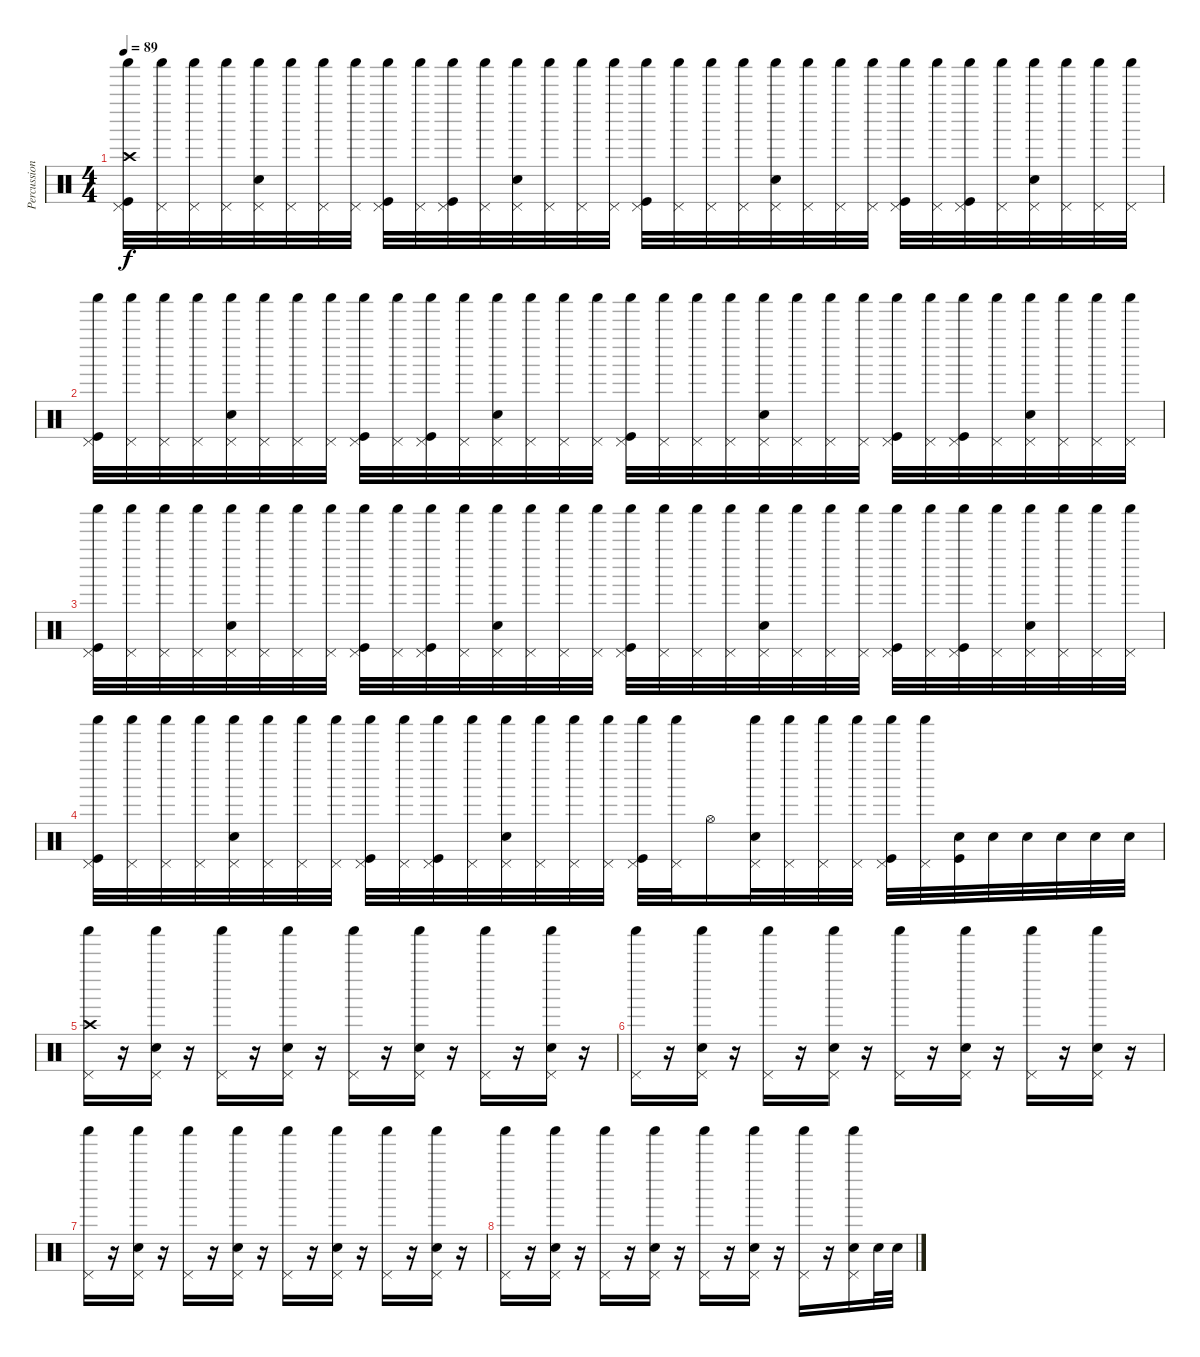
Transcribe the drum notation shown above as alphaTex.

\track ("Percussion" "Percussion") {instrument percussion}
\staff {score}
\articulation defaults
\ts (4 4)
\tempo 89
\clef neutral
\ks c
("Pedal Hi-Hat (hit)" "Shaker (hit)" "Crash high (hit)" "Kick (hit)").32{dy f} ("Pedal Hi-Hat (hit)" "Shaker (hit)").32 ("Pedal Hi-Hat (hit)" "Shaker (hit)").32 ("Pedal Hi-Hat (hit)" "Shaker (hit)").32 ("Pedal Hi-Hat (hit)" "Shaker (hit)" "Snare (hit) 2").32 ("Pedal Hi-Hat (hit)" "Shaker (hit)").32 ("Pedal Hi-Hat (hit)" "Shaker (hit)").32 ("Pedal Hi-Hat (hit)" "Shaker (hit)").32 ("Pedal Hi-Hat (hit)" "Shaker (hit)" "Kick (hit)").32 ("Pedal Hi-Hat (hit)" "Shaker (hit)").32 ("Pedal Hi-Hat (hit)" "Shaker (hit)" "Kick (hit)").32 ("Pedal Hi-Hat (hit)" "Shaker (hit)").32 ("Pedal Hi-Hat (hit)" "Shaker (hit)" "Snare (hit) 2").32 ("Pedal Hi-Hat (hit)" "Shaker (hit)").32 ("Pedal Hi-Hat (hit)" "Shaker (hit)").32 ("Pedal Hi-Hat (hit)" "Shaker (hit)").32 ("Pedal Hi-Hat (hit)" "Shaker (hit)" "Kick (hit)").32 ("Pedal Hi-Hat (hit)" "Shaker (hit)").32 ("Pedal Hi-Hat (hit)" "Shaker (hit)").32 ("Pedal Hi-Hat (hit)" "Shaker (hit)").32 ("Pedal Hi-Hat (hit)" "Shaker (hit)" "Snare (hit) 2").32 ("Pedal Hi-Hat (hit)" "Shaker (hit)").32 ("Pedal Hi-Hat (hit)" "Shaker (hit)").32 ("Pedal Hi-Hat (hit)" "Shaker (hit)").32 ("Pedal Hi-Hat (hit)" "Shaker (hit)" "Kick (hit)").32 ("Pedal Hi-Hat (hit)" "Shaker (hit)").32 ("Pedal Hi-Hat (hit)" "Shaker (hit)" "Kick (hit)").32 ("Pedal Hi-Hat (hit)" "Shaker (hit)").32 ("Pedal Hi-Hat (hit)" "Shaker (hit)" "Snare (hit) 2").32 ("Pedal Hi-Hat (hit)" "Shaker (hit)").32 ("Pedal Hi-Hat (hit)" "Shaker (hit)").32 ("Pedal Hi-Hat (hit)" "Shaker (hit)").32 |
("Pedal Hi-Hat (hit)" "Shaker (hit)" "Kick (hit)").32 ("Pedal Hi-Hat (hit)" "Shaker (hit)").32 ("Pedal Hi-Hat (hit)" "Shaker (hit)").32 ("Pedal Hi-Hat (hit)" "Shaker (hit)").32 ("Pedal Hi-Hat (hit)" "Shaker (hit)" "Snare (hit) 2").32 ("Pedal Hi-Hat (hit)" "Shaker (hit)").32 ("Pedal Hi-Hat (hit)" "Shaker (hit)").32 ("Pedal Hi-Hat (hit)" "Shaker (hit)").32 ("Pedal Hi-Hat (hit)" "Shaker (hit)" "Kick (hit)").32 ("Pedal Hi-Hat (hit)" "Shaker (hit)").32 ("Pedal Hi-Hat (hit)" "Shaker (hit)" "Kick (hit)").32 ("Pedal Hi-Hat (hit)" "Shaker (hit)").32 ("Pedal Hi-Hat (hit)" "Shaker (hit)" "Snare (hit) 2").32 ("Pedal Hi-Hat (hit)" "Shaker (hit)").32 ("Pedal Hi-Hat (hit)" "Shaker (hit)").32 ("Pedal Hi-Hat (hit)" "Shaker (hit)").32 ("Pedal Hi-Hat (hit)" "Shaker (hit)" "Kick (hit)").32 ("Pedal Hi-Hat (hit)" "Shaker (hit)").32 ("Pedal Hi-Hat (hit)" "Shaker (hit)").32 ("Pedal Hi-Hat (hit)" "Shaker (hit)").32 ("Pedal Hi-Hat (hit)" "Shaker (hit)" "Snare (hit) 2").32 ("Pedal Hi-Hat (hit)" "Shaker (hit)").32 ("Pedal Hi-Hat (hit)" "Shaker (hit)").32 ("Pedal Hi-Hat (hit)" "Shaker (hit)").32 ("Pedal Hi-Hat (hit)" "Shaker (hit)" "Kick (hit)").32 ("Pedal Hi-Hat (hit)" "Shaker (hit)").32 ("Pedal Hi-Hat (hit)" "Shaker (hit)" "Kick (hit)").32 ("Pedal Hi-Hat (hit)" "Shaker (hit)").32 ("Pedal Hi-Hat (hit)" "Shaker (hit)" "Snare (hit) 2").32 ("Pedal Hi-Hat (hit)" "Shaker (hit)").32 ("Pedal Hi-Hat (hit)" "Shaker (hit)").32 ("Pedal Hi-Hat (hit)" "Shaker (hit)").32 |
("Pedal Hi-Hat (hit)" "Shaker (hit)" "Kick (hit)").32 ("Pedal Hi-Hat (hit)" "Shaker (hit)").32 ("Pedal Hi-Hat (hit)" "Shaker (hit)").32 ("Pedal Hi-Hat (hit)" "Shaker (hit)").32 ("Pedal Hi-Hat (hit)" "Shaker (hit)" "Snare (hit) 2").32 ("Pedal Hi-Hat (hit)" "Shaker (hit)").32 ("Pedal Hi-Hat (hit)" "Shaker (hit)").32 ("Pedal Hi-Hat (hit)" "Shaker (hit)").32 ("Pedal Hi-Hat (hit)" "Shaker (hit)" "Kick (hit)").32 ("Pedal Hi-Hat (hit)" "Shaker (hit)").32 ("Pedal Hi-Hat (hit)" "Shaker (hit)" "Kick (hit)").32 ("Pedal Hi-Hat (hit)" "Shaker (hit)").32 ("Pedal Hi-Hat (hit)" "Shaker (hit)" "Snare (hit) 2").32 ("Pedal Hi-Hat (hit)" "Shaker (hit)").32 ("Pedal Hi-Hat (hit)" "Shaker (hit)").32 ("Pedal Hi-Hat (hit)" "Shaker (hit)").32 ("Pedal Hi-Hat (hit)" "Shaker (hit)" "Kick (hit)").32 ("Pedal Hi-Hat (hit)" "Shaker (hit)").32 ("Pedal Hi-Hat (hit)" "Shaker (hit)").32 ("Pedal Hi-Hat (hit)" "Shaker (hit)").32 ("Pedal Hi-Hat (hit)" "Shaker (hit)" "Snare (hit) 2").32 ("Pedal Hi-Hat (hit)" "Shaker (hit)").32 ("Pedal Hi-Hat (hit)" "Shaker (hit)").32 ("Pedal Hi-Hat (hit)" "Shaker (hit)").32 ("Pedal Hi-Hat (hit)" "Shaker (hit)" "Kick (hit)").32 ("Pedal Hi-Hat (hit)" "Shaker (hit)").32 ("Pedal Hi-Hat (hit)" "Shaker (hit)" "Kick (hit)").32 ("Pedal Hi-Hat (hit)" "Shaker (hit)").32 ("Pedal Hi-Hat (hit)" "Shaker (hit)" "Snare (hit) 2").32 ("Pedal Hi-Hat (hit)" "Shaker (hit)").32 ("Pedal Hi-Hat (hit)" "Shaker (hit)").32 ("Pedal Hi-Hat (hit)" "Shaker (hit)").32 |
("Pedal Hi-Hat (hit)" "Shaker (hit)" "Kick (hit)").32 ("Pedal Hi-Hat (hit)" "Shaker (hit)").32 ("Pedal Hi-Hat (hit)" "Shaker (hit)").32 ("Pedal Hi-Hat (hit)" "Shaker (hit)").32 ("Pedal Hi-Hat (hit)" "Shaker (hit)" "Snare (hit) 2").32 ("Pedal Hi-Hat (hit)" "Shaker (hit)").32 ("Pedal Hi-Hat (hit)" "Shaker (hit)").32 ("Pedal Hi-Hat (hit)" "Shaker (hit)").32 ("Pedal Hi-Hat (hit)" "Shaker (hit)" "Kick (hit)").32 ("Pedal Hi-Hat (hit)" "Shaker (hit)").32 ("Pedal Hi-Hat (hit)" "Shaker (hit)" "Kick (hit)").32 ("Pedal Hi-Hat (hit)" "Shaker (hit)").32 ("Pedal Hi-Hat (hit)" "Shaker (hit)" "Snare (hit) 2").32 ("Pedal Hi-Hat (hit)" "Shaker (hit)").32 ("Pedal Hi-Hat (hit)" "Shaker (hit)").32 ("Pedal Hi-Hat (hit)" "Shaker (hit)").32 ("Pedal Hi-Hat (hit)" "Shaker (hit)" "Kick (hit)").32 ("Pedal Hi-Hat (hit)" "Shaker (hit)").32 "Hi-Hat (open)".16 ("Pedal Hi-Hat (hit)" "Shaker (hit)" "Snare (hit) 2").32 ("Pedal Hi-Hat (hit)" "Shaker (hit)").32 ("Pedal Hi-Hat (hit)" "Shaker (hit)").32 ("Pedal Hi-Hat (hit)" "Shaker (hit)").32 ("Pedal Hi-Hat (hit)" "Shaker (hit)" "Kick (hit)").32 ("Pedal Hi-Hat (hit)" "Shaker (hit)").32 ("Snare (hit) 2" "Kick (hit)").32 "Snare (hit) 2".32 "Snare (hit) 2".32 "Snare (hit) 2".32 "Snare (hit) 2".32 "Snare (hit) 2".32 |
("Pedal Hi-Hat (hit)" "Shaker (hit)" "Crash high (hit)").16 r.16 ("Pedal Hi-Hat (hit)" "Shaker (hit)" "Snare (hit) 2").16 r.16 ("Pedal Hi-Hat (hit)" "Shaker (hit)").16 r.16 ("Pedal Hi-Hat (hit)" "Shaker (hit)" "Snare (hit) 2").16 r.16 ("Pedal Hi-Hat (hit)" "Shaker (hit)").16 r.16 ("Pedal Hi-Hat (hit)" "Shaker (hit)" "Snare (hit) 2").16 r.16 ("Pedal Hi-Hat (hit)" "Shaker (hit)").16 r.16 ("Pedal Hi-Hat (hit)" "Shaker (hit)" "Snare (hit) 2").16 r.16 |
("Pedal Hi-Hat (hit)" "Shaker (hit)").16 r.16 ("Pedal Hi-Hat (hit)" "Shaker (hit)" "Snare (hit) 2").16 r.16 ("Pedal Hi-Hat (hit)" "Shaker (hit)").16 r.16 ("Pedal Hi-Hat (hit)" "Shaker (hit)" "Snare (hit) 2").16 r.16 ("Pedal Hi-Hat (hit)" "Shaker (hit)").16 r.16 ("Pedal Hi-Hat (hit)" "Shaker (hit)" "Snare (hit) 2").16 r.16 ("Pedal Hi-Hat (hit)" "Shaker (hit)").16 r.16 ("Pedal Hi-Hat (hit)" "Shaker (hit)" "Snare (hit) 2").16 r.16 |
("Pedal Hi-Hat (hit)" "Shaker (hit)").16 r.16 ("Pedal Hi-Hat (hit)" "Shaker (hit)" "Snare (hit) 2").16 r.16 ("Pedal Hi-Hat (hit)" "Shaker (hit)").16 r.16 ("Pedal Hi-Hat (hit)" "Shaker (hit)" "Snare (hit) 2").16 r.16 ("Pedal Hi-Hat (hit)" "Shaker (hit)").16 r.16 ("Pedal Hi-Hat (hit)" "Shaker (hit)" "Snare (hit) 2").16 r.16 ("Pedal Hi-Hat (hit)" "Shaker (hit)").16 r.16 ("Pedal Hi-Hat (hit)" "Shaker (hit)" "Snare (hit) 2").16 r.16 |
("Pedal Hi-Hat (hit)" "Shaker (hit)").16 r.16 ("Pedal Hi-Hat (hit)" "Shaker (hit)" "Snare (hit) 2").16 r.16 ("Pedal Hi-Hat (hit)" "Shaker (hit)").16 r.16 ("Pedal Hi-Hat (hit)" "Shaker (hit)" "Snare (hit) 2").16 r.16 ("Pedal Hi-Hat (hit)" "Shaker (hit)").16 r.16 ("Pedal Hi-Hat (hit)" "Shaker (hit)" "Snare (hit) 2").16 r.16 ("Pedal Hi-Hat (hit)" "Shaker (hit)").16 r.16 ("Pedal Hi-Hat (hit)" "Shaker (hit)" "Snare (hit) 2").16 "Snare (hit) 2".32 "Snare (hit) 2".32
